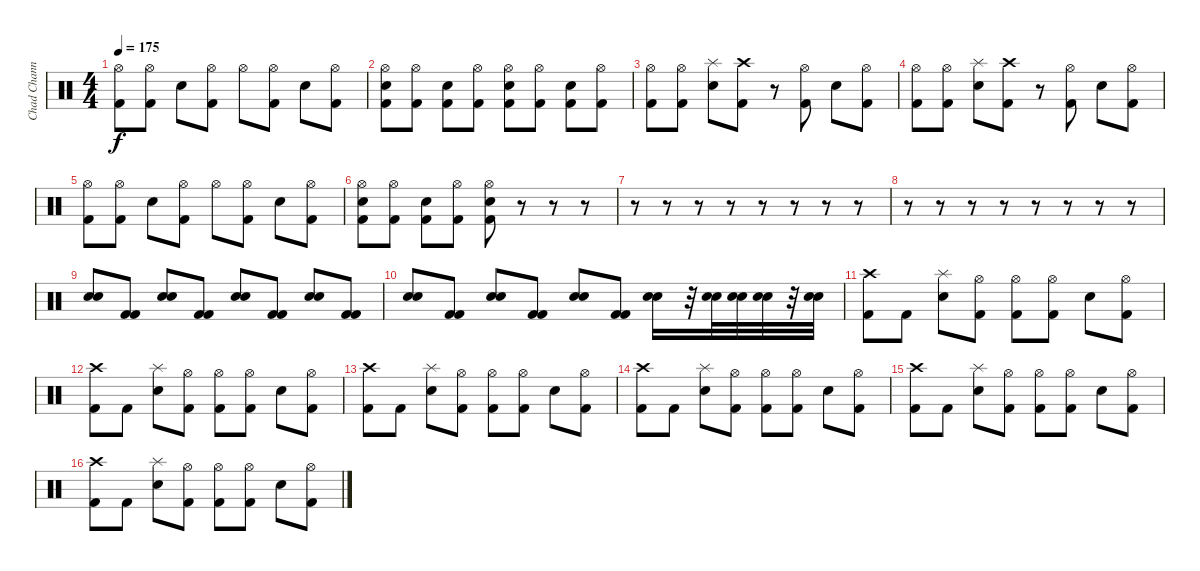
\track ("Chad Channing" "Chad Chann") {instrument percussion}
\staff {score}
\articulation defaults
\ts (4 4)
\tempo 175
\clef neutral
\ks c
("Hi-Hat (open)" "Kick (hit) 2").8{dy f} ("Hi-Hat (open)" "Kick (hit) 2").8 "Snare (hit) 2".8 ("Hi-Hat (open)" "Kick (hit) 2").8 "Hi-Hat (open)".8 ("Hi-Hat (open)" "Kick (hit) 2").8 "Snare (hit) 2".8 ("Hi-Hat (open)" "Kick (hit) 2").8 |
("Hi-Hat (open)" "Snare (hit) 2" "Kick (hit) 2").8 ("Hi-Hat (open)" "Kick (hit) 2").8 ("Snare (hit) 2" "Kick (hit) 2").8 ("Hi-Hat (open)" "Kick (hit) 2").8 ("Hi-Hat (open)" "Snare (hit) 2" "Kick (hit) 2").8 ("Hi-Hat (open)" "Kick (hit) 2").8 ("Snare (hit) 2" "Kick (hit) 2").8 ("Hi-Hat (open)" "Kick (hit) 2").8 |
("Hi-Hat (open)" "Kick (hit) 2").8 ("Hi-Hat (open)" "Kick (hit) 2").8 ("Splash (hit)" "Snare (hit) 2").8 ("Crash high (hit)" "Kick (hit) 2").8 r.8 ("Hi-Hat (open)" "Kick (hit) 2").8 "Snare (hit) 2".8 ("Hi-Hat (open)" "Kick (hit) 2").8 |
("Hi-Hat (open)" "Kick (hit) 2").8 ("Hi-Hat (open)" "Kick (hit) 2").8 ("Splash (hit)" "Snare (hit) 2").8 ("Crash high (hit)" "Kick (hit) 2").8 r.8 ("Hi-Hat (open)" "Kick (hit) 2").8 "Snare (hit) 2".8 ("Hi-Hat (open)" "Kick (hit) 2").8 |
("Hi-Hat (open)" "Kick (hit) 2").8 ("Hi-Hat (open)" "Kick (hit) 2").8 "Snare (hit) 2".8 ("Hi-Hat (open)" "Kick (hit) 2").8 "Hi-Hat (open)".8 ("Hi-Hat (open)" "Kick (hit) 2").8 "Snare (hit) 2".8 ("Hi-Hat (open)" "Kick (hit) 2").8 |
("Hi-Hat (open)" "Snare (hit) 2" "Kick (hit) 2").8 ("Hi-Hat (open)" "Kick (hit) 2").8 ("Snare (hit) 2" "Kick (hit) 2").8 ("Hi-Hat (open)" "Kick (hit) 2").8 ("Hi-Hat (open)" "Snare (hit) 2" "Kick (hit) 2").8 r.8 r.8 r.8 |
r.8 r.8 r.8 r.8 r.8 r.8 r.8 r.8 |
r.8 r.8 r.8 r.8 r.8 r.8 r.8 r.8 |
("Snare (hit) 2" "Snare (hit) 2").8 ("Kick (hit) 2" "Kick (hit) 2").8 ("Snare (hit) 2" "Snare (hit) 2").8 ("Kick (hit) 2" "Kick (hit) 2").8 ("Snare (hit) 2" "Snare (hit) 2").8 ("Kick (hit) 2" "Kick (hit) 2").8 ("Snare (hit) 2" "Snare (hit) 2").8 ("Kick (hit) 2" "Kick (hit) 2").8 |
("Snare (hit) 2" "Snare (hit) 2").8 ("Kick (hit) 2" "Kick (hit) 2").8 ("Snare (hit) 2" "Snare (hit) 2").8 ("Kick (hit) 2" "Kick (hit) 2").8 ("Snare (hit) 2" "Snare (hit) 2").8 ("Kick (hit) 2" "Kick (hit) 2").8 ("Snare (hit) 2" "Snare (hit) 2").16 r.32 ("Snare (hit) 2" "Snare (hit) 2").32 ("Snare (hit) 2" "Snare (hit) 2").32 ("Snare (hit) 2" "Snare (hit) 2").32 r.32 ("Snare (hit) 2" "Snare (hit) 2").32 |
("Crash high (hit)" "Kick (hit) 2").8 "Kick (hit) 2".8 ("Splash (hit)" "Snare (hit) 2").8 ("Hi-Hat (open)" "Kick (hit) 2").8 ("Hi-Hat (open)" "Kick (hit) 2").8 ("Hi-Hat (open)" "Kick (hit) 2").8 "Snare (hit) 2".8 ("Hi-Hat (open)" "Kick (hit) 2").8 |
("Crash high (hit)" "Kick (hit) 2").8 "Kick (hit) 2".8 ("Splash (hit)" "Snare (hit) 2").8 ("Hi-Hat (open)" "Kick (hit) 2").8 ("Hi-Hat (open)" "Kick (hit) 2").8 ("Hi-Hat (open)" "Kick (hit) 2").8 "Snare (hit) 2".8 ("Hi-Hat (open)" "Kick (hit) 2").8 |
("Crash high (hit)" "Kick (hit) 2").8 "Kick (hit) 2".8 ("Splash (hit)" "Snare (hit) 2").8 ("Hi-Hat (open)" "Kick (hit) 2").8 ("Hi-Hat (open)" "Kick (hit) 2").8 ("Hi-Hat (open)" "Kick (hit) 2").8 "Snare (hit) 2".8 ("Hi-Hat (open)" "Kick (hit) 2").8 |
("Crash high (hit)" "Kick (hit) 2").8 "Kick (hit) 2".8 ("Splash (hit)" "Snare (hit) 2").8 ("Hi-Hat (open)" "Kick (hit) 2").8 ("Hi-Hat (open)" "Kick (hit) 2").8 ("Hi-Hat (open)" "Kick (hit) 2").8 "Snare (hit) 2".8 ("Hi-Hat (open)" "Kick (hit) 2").8 |
("Crash high (hit)" "Kick (hit) 2").8 "Kick (hit) 2".8 ("Splash (hit)" "Snare (hit) 2").8 ("Hi-Hat (open)" "Kick (hit) 2").8 ("Hi-Hat (open)" "Kick (hit) 2").8 ("Hi-Hat (open)" "Kick (hit) 2").8 "Snare (hit) 2".8 ("Hi-Hat (open)" "Kick (hit) 2").8 |
("Crash high (hit)" "Kick (hit) 2").8 "Kick (hit) 2".8 ("Splash (hit)" "Snare (hit) 2").8 ("Hi-Hat (open)" "Kick (hit) 2").8 ("Hi-Hat (open)" "Kick (hit) 2").8 ("Hi-Hat (open)" "Kick (hit) 2").8 "Snare (hit) 2".8 ("Hi-Hat (open)" "Kick (hit) 2").8
